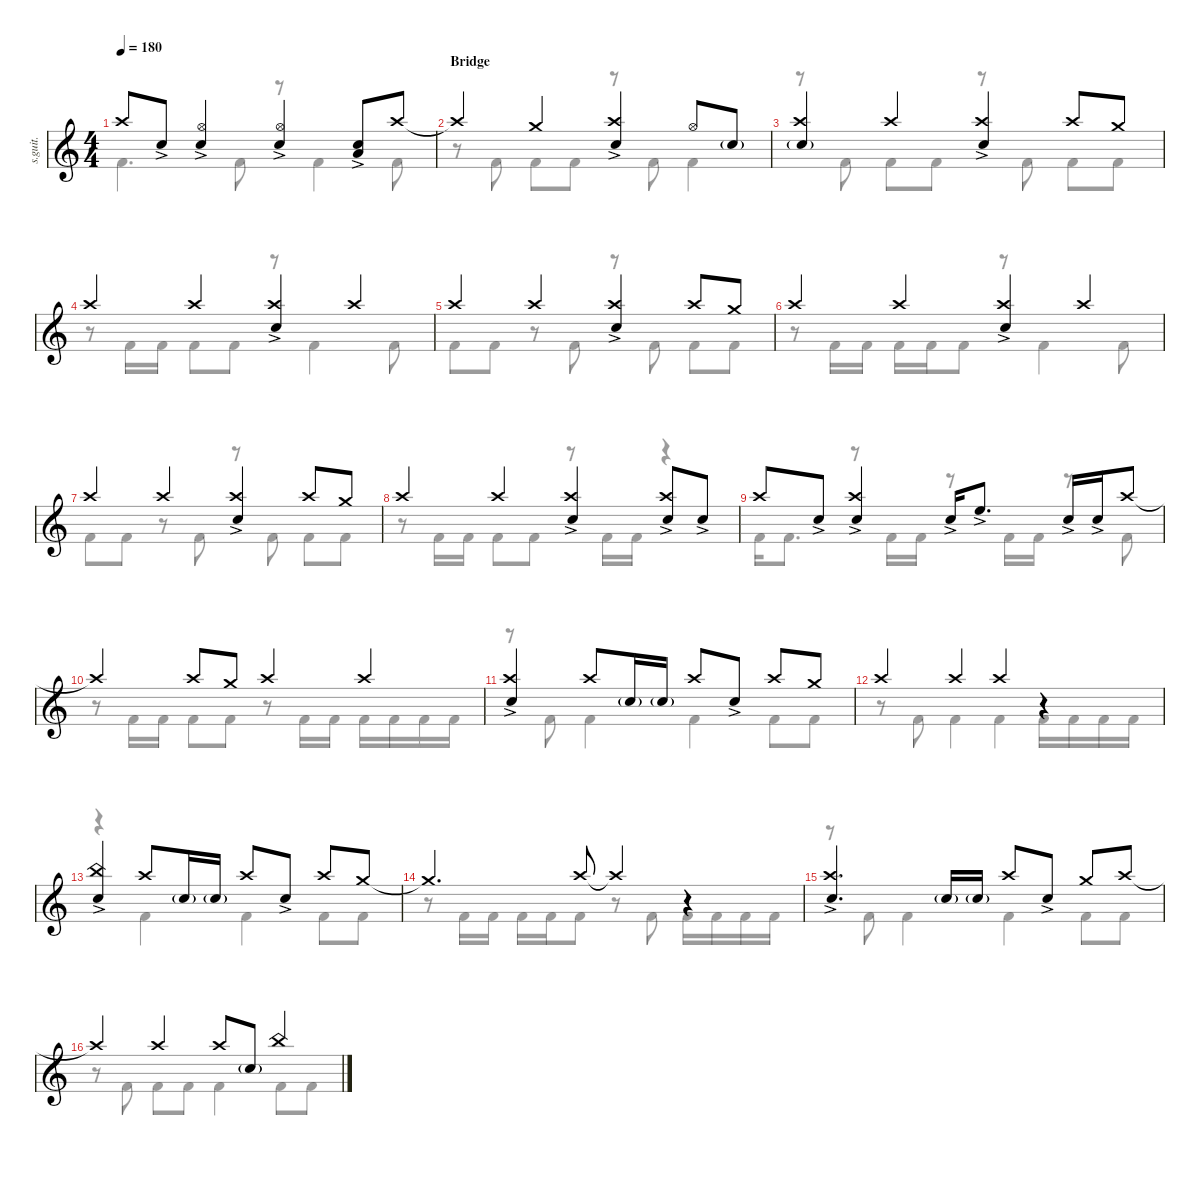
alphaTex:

\defaultSystemsLayout 4
\hideDynamics
\bracketExtendMode nobrackets
\track ("Percussion" "s.guit.") {instrument percussion}
\staff {score}
\articulation defaults
\voice
\ts (4 4)
\tempo 180
\clef g2
\ks c "Crash high (hit)".8{lyrics (0 "") lyrics (1 "") lyrics (2 "") lyrics (3 "") lyrics (4 "") dy f} "Snare (hit) 2"{ac}.8{lyrics (0 "") lyrics (1 "") lyrics (2 "") lyrics (3 "") lyrics (4 "")}
("Snare (hit) 2"{ac} "Hi-Hat (open)").4{lyrics (0 "") lyrics (1 "") lyrics (2 "") lyrics (3 "") lyrics (4 "")} ("Snare (hit) 2"{ac} "Hi-Hat (open)").4{lyrics (0 "") lyrics (1 "") lyrics (2 "") lyrics (3 "") lyrics (4 "")} ("Snare (hit) 2"{ac} "Low Tom (hit)"{ac}).8{lyrics (0 "") lyrics (1 "") lyrics (2 "") lyrics (3 "") lyrics (4 "")} "Crash high (hit)".8{lyrics (0 "") lyrics (1 "") lyrics (2 "") lyrics (3 "") lyrics (4 "")} |
\section ("" "Bridge")
"Crash high (hit)"{t}.4{lyrics (0 "") lyrics (1 "") lyrics (2 "") lyrics (3 "") lyrics (4 "")} "Crash medium (hit)".4{lyrics (0 "") lyrics (1 "") lyrics (2 "") lyrics (3 "") lyrics (4 "")} ("Snare (hit) 2"{ac} "Crash high (hit)").4{lyrics (0 "") lyrics (1 "") lyrics (2 "") lyrics (3 "") lyrics (4 "")} "Hi-Hat (open)".8{lyrics (0 "") lyrics (1 "") lyrics (2 "") lyrics (3 "") lyrics (4 "")} "Snare (hit) 2"{g}.8{lyrics (0 "") lyrics (1 "") lyrics (2 "") lyrics (3 "") lyrics (4 "")} |
("Snare (hit) 2"{g} "Crash high (hit)").4{lyrics (0 "") lyrics (1 "") lyrics (2 "") lyrics (3 "") lyrics (4 "")} "Crash high (hit)".4{lyrics (0 "") lyrics (1 "") lyrics (2 "") lyrics (3 "") lyrics (4 "")} ("Crash high (hit)" "Snare (hit) 2"{ac}).4{lyrics (0 "") lyrics (1 "") lyrics (2 "") lyrics (3 "") lyrics (4 "")} "Crash high (hit)".8{lyrics (0 "") lyrics (1 "") lyrics (2 "") lyrics (3 "") lyrics (4 "")} "Crash medium (hit)".8{lyrics (0 "") lyrics (1 "") lyrics (2 "") lyrics (3 "") lyrics (4 "")} |
"Crash high (hit)".4{lyrics (0 "") lyrics (1 "") lyrics (2 "") lyrics (3 "") lyrics (4 "")} "Crash high (hit)".4{lyrics (0 "") lyrics (1 "") lyrics (2 "") lyrics (3 "") lyrics (4 "")} ("Crash high (hit)" "Snare (hit) 2"{ac}).4{lyrics (0 "") lyrics (1 "") lyrics (2 "") lyrics (3 "") lyrics (4 "")} "Crash high (hit)".4{lyrics (0 "") lyrics (1 "") lyrics (2 "") lyrics (3 "") lyrics (4 "")} |
"Crash high (hit)".4{lyrics (0 "") lyrics (1 "") lyrics (2 "") lyrics (3 "") lyrics (4 "")} "Crash high (hit)".4{lyrics (0 "") lyrics (1 "") lyrics (2 "") lyrics (3 "") lyrics (4 "")} ("Crash high (hit)" "Snare (hit) 2"{ac}).4{lyrics (0 "") lyrics (1 "") lyrics (2 "") lyrics (3 "") lyrics (4 "")} "Crash high (hit)".8{lyrics (0 "") lyrics (1 "") lyrics (2 "") lyrics (3 "") lyrics (4 "")} "Crash medium (hit)".8{lyrics (0 "") lyrics (1 "") lyrics (2 "") lyrics (3 "") lyrics (4 "")} |
"Crash high (hit)".4{lyrics (0 "") lyrics (1 "") lyrics (2 "") lyrics (3 "") lyrics (4 "")} "Crash high (hit)".4{lyrics (0 "") lyrics (1 "") lyrics (2 "") lyrics (3 "") lyrics (4 "")} ("Crash high (hit)" "Snare (hit) 2"{ac}).4{lyrics (0 "") lyrics (1 "") lyrics (2 "") lyrics (3 "") lyrics (4 "")} "Crash high (hit)".4{lyrics (0 "") lyrics (1 "") lyrics (2 "") lyrics (3 "") lyrics (4 "")} |
"Crash high (hit)".4{lyrics (0 "") lyrics (1 "") lyrics (2 "") lyrics (3 "") lyrics (4 "")} "Crash high (hit)".4{lyrics (0 "") lyrics (1 "") lyrics (2 "") lyrics (3 "") lyrics (4 "")} ("Crash high (hit)" "Snare (hit) 2"{ac}).4{lyrics (0 "") lyrics (1 "") lyrics (2 "") lyrics (3 "") lyrics (4 "")} "Crash high (hit)".8{lyrics (0 "") lyrics (1 "") lyrics (2 "") lyrics (3 "") lyrics (4 "")} "Crash medium (hit)".8{lyrics (0 "") lyrics (1 "") lyrics (2 "") lyrics (3 "") lyrics (4 "")} |
"Crash high (hit)".4{lyrics (0 "") lyrics (1 "") lyrics (2 "") lyrics (3 "") lyrics (4 "")} "Crash high (hit)".4{lyrics (0 "") lyrics (1 "") lyrics (2 "") lyrics (3 "") lyrics (4 "")} ("Crash high (hit)" "Snare (hit) 2"{ac}).4{lyrics (0 "") lyrics (1 "") lyrics (2 "") lyrics (3 "") lyrics (4 "")} ("Crash high (hit)" "Snare (hit) 2"{ac}).8{lyrics (0 "") lyrics (1 "") lyrics (2 "") lyrics (3 "") lyrics (4 "")} "Snare (hit) 2"{ac}.8{lyrics (0 "") lyrics (1 "") lyrics (2 "") lyrics (3 "") lyrics (4 "")} |
"Crash high (hit)".8{lyrics (0 "") lyrics (1 "") lyrics (2 "") lyrics (3 "") lyrics (4 "")} "Snare (hit) 2"{ac}.8{lyrics (0 "") lyrics (1 "") lyrics (2 "") lyrics (3 "") lyrics (4 "")} ("Snare (hit) 2"{ac} "Crash high (hit)").4{lyrics (0 "") lyrics (1 "") lyrics (2 "") lyrics (3 "") lyrics (4 "")} "Snare (hit) 2"{ac}.16{lyrics (0 "") lyrics (1 "") lyrics (2 "") lyrics (3 "") lyrics (4 "")} "High Floor Tom (hit)"{ac}.8{d lyrics (0 "") lyrics (1 "") lyrics (2 "") lyrics (3 "") lyrics (4 "")} "Snare (hit) 2"{ac}.16{lyrics (0 "") lyrics (1 "") lyrics (2 "") lyrics (3 "") lyrics (4 "")} "Snare (hit) 2"{ac}.16{lyrics (0 "") lyrics (1 "") lyrics (2 "") lyrics (3 "") lyrics (4 "")} "Crash high (hit)".8{lyrics (0 "") lyrics (1 "") lyrics (2 "") lyrics (3 "") lyrics (4 "")} |
"Crash high (hit)"{t}.4{lyrics (0 "") lyrics (1 "") lyrics (2 "") lyrics (3 "") lyrics (4 "")} "Crash high (hit)".8{lyrics (0 "") lyrics (1 "") lyrics (2 "") lyrics (3 "") lyrics (4 "")} "Crash medium (hit)".8{lyrics (0 "") lyrics (1 "") lyrics (2 "") lyrics (3 "") lyrics (4 "")} "Crash high (hit)".4{lyrics (0 "") lyrics (1 "") lyrics (2 "") lyrics (3 "") lyrics (4 "")} "Crash high (hit)".4{lyrics (0 "") lyrics (1 "") lyrics (2 "") lyrics (3 "") lyrics (4 "")} |
("Crash high (hit)" "Snare (hit) 2"{ac}).4{lyrics (0 "") lyrics (1 "") lyrics (2 "") lyrics (3 "") lyrics (4 "")} "Crash high (hit)".8{lyrics (0 "") lyrics (1 "") lyrics (2 "") lyrics (3 "") lyrics (4 "")} "Snare (hit) 2"{g}.16{lyrics (0 "") lyrics (1 "") lyrics (2 "") lyrics (3 "") lyrics (4 "")} "Snare (hit) 2"{g}.16{lyrics (0 "") lyrics (1 "") lyrics (2 "") lyrics (3 "") lyrics (4 "")} "Crash high (hit)".8{lyrics (0 "") lyrics (1 "") lyrics (2 "") lyrics (3 "") lyrics (4 "")} "Snare (hit) 2"{ac}.8{lyrics (0 "") lyrics (1 "") lyrics (2 "") lyrics (3 "") lyrics (4 "")} "Crash high (hit)".8{lyrics (0 "") lyrics (1 "") lyrics (2 "") lyrics (3 "") lyrics (4 "")} "Crash medium (hit)".8{lyrics (0 "") lyrics (1 "") lyrics (2 "") lyrics (3 "") lyrics (4 "")} |
"Crash high (hit)".4{lyrics (0 "") lyrics (1 "") lyrics (2 "") lyrics (3 "") lyrics (4 "")} "Crash high (hit)".4{lyrics (0 "") lyrics (1 "") lyrics (2 "") lyrics (3 "") lyrics (4 "")} "Crash high (hit)".4{lyrics (0 "") lyrics (1 "") lyrics (2 "") lyrics (3 "") lyrics (4 "")} r.4 |
("Snare (hit) 2"{ac} "China (hit)").4{lyrics (0 "") lyrics (1 "") lyrics (2 "") lyrics (3 "") lyrics (4 "")} "Crash high (hit)".8{lyrics (0 "") lyrics (1 "") lyrics (2 "") lyrics (3 "") lyrics (4 "")} "Snare (hit) 2"{g}.16{lyrics (0 "") lyrics (1 "") lyrics (2 "") lyrics (3 "") lyrics (4 "")} "Snare (hit) 2"{g}.16{lyrics (0 "") lyrics (1 "") lyrics (2 "") lyrics (3 "") lyrics (4 "")} "Crash high (hit)".8{lyrics (0 "") lyrics (1 "") lyrics (2 "") lyrics (3 "") lyrics (4 "")} "Snare (hit) 2"{ac}.8{lyrics (0 "") lyrics (1 "") lyrics (2 "") lyrics (3 "") lyrics (4 "")} "Crash high (hit)".8{lyrics (0 "") lyrics (1 "") lyrics (2 "") lyrics (3 "") lyrics (4 "")} "Crash medium (hit)".8{lyrics (0 "") lyrics (1 "") lyrics (2 "") lyrics (3 "") lyrics (4 "")} |
"Crash medium (hit)"{t}.4{d lyrics (0 "") lyrics (1 "") lyrics (2 "") lyrics (3 "") lyrics (4 "")} "Crash high (hit)".8{lyrics (0 "") lyrics (1 "") lyrics (2 "") lyrics (3 "") lyrics (4 "")} "Crash high (hit)"{t}.4{lyrics (0 "") lyrics (1 "") lyrics (2 "") lyrics (3 "") lyrics (4 "")} r.4 |
("Snare (hit) 2"{ac} "Crash high (hit)").4{d lyrics (0 "") lyrics (1 "") lyrics (2 "") lyrics (3 "") lyrics (4 "")} "Snare (hit) 2"{g}.16{lyrics (0 "") lyrics (1 "") lyrics (2 "") lyrics (3 "") lyrics (4 "")} "Snare (hit) 2"{g}.16{lyrics (0 "") lyrics (1 "") lyrics (2 "") lyrics (3 "") lyrics (4 "")} "Crash high (hit)".8{lyrics (0 "") lyrics (1 "") lyrics (2 "") lyrics (3 "") lyrics (4 "")} "Snare (hit) 2"{ac}.8{lyrics (0 "") lyrics (1 "") lyrics (2 "") lyrics (3 "") lyrics (4 "")} "Crash medium (hit)".8{lyrics (0 "") lyrics (1 "") lyrics (2 "") lyrics (3 "") lyrics (4 "")} "Crash high (hit)".8{lyrics (0 "") lyrics (1 "") lyrics (2 "") lyrics (3 "") lyrics (4 "")} |
"Crash high (hit)"{t}.4{lyrics (0 "") lyrics (1 "") lyrics (2 "") lyrics (3 "") lyrics (4 "")} "Crash high (hit)".4{lyrics (0 "") lyrics (1 "") lyrics (2 "") lyrics (3 "") lyrics (4 "")} "Crash high (hit)".8{lyrics (0 "") lyrics (1 "") lyrics (2 "") lyrics (3 "") lyrics (4 "")} "Snare (hit) 2"{g}.8{lyrics (0 "") lyrics (1 "") lyrics (2 "") lyrics (3 "") lyrics (4 "")} "China (hit)".4{lyrics (0 "") lyrics (1 "") lyrics (2 "") lyrics (3 "") lyrics (4 "")}
\voice
\clef g2
\ottava regular
\simile none
\ks c "Kick (hit) 2".4{d lyrics (0 "") lyrics (1 "") lyrics (2 "") lyrics (3 "") lyrics (4 "") dy f} "Kick (hit) 2".8{lyrics (0 "") lyrics (1 "") lyrics (2 "") lyrics (3 "") lyrics (4 "")}
r.8 "Kick (hit) 2".4{lyrics (0 "") lyrics (1 "") lyrics (2 "") lyrics (3 "") lyrics (4 "")} "Kick (hit) 2".8{lyrics (0 "") lyrics (1 "") lyrics (2 "") lyrics (3 "") lyrics (4 "")} |
r.8 "Kick (hit) 2".8{lyrics (0 "") lyrics (1 "") lyrics (2 "") lyrics (3 "") lyrics (4 "")} "Kick (hit) 2".8{lyrics (0 "") lyrics (1 "") lyrics (2 "") lyrics (3 "") lyrics (4 "")} "Kick (hit) 2".8{lyrics (0 "") lyrics (1 "") lyrics (2 "") lyrics (3 "") lyrics (4 "")} r.8 "Kick (hit) 2".8{lyrics (0 "") lyrics (1 "") lyrics (2 "") lyrics (3 "") lyrics (4 "")} "Kick (hit) 2".4{lyrics (0 "") lyrics (1 "") lyrics (2 "") lyrics (3 "") lyrics (4 "")} |
r.8 "Kick (hit) 2".8{lyrics (0 "") lyrics (1 "") lyrics (2 "") lyrics (3 "") lyrics (4 "")} "Kick (hit) 2".8{lyrics (0 "") lyrics (1 "") lyrics (2 "") lyrics (3 "") lyrics (4 "")} "Kick (hit) 2".8{lyrics (0 "") lyrics (1 "") lyrics (2 "") lyrics (3 "") lyrics (4 "")} r.8 "Kick (hit) 2".8{lyrics (0 "") lyrics (1 "") lyrics (2 "") lyrics (3 "") lyrics (4 "")} "Kick (hit) 2".8{lyrics (0 "") lyrics (1 "") lyrics (2 "") lyrics (3 "") lyrics (4 "")} "Kick (hit) 2".8{lyrics (0 "") lyrics (1 "") lyrics (2 "") lyrics (3 "") lyrics (4 "")} |
r.8 "Kick (hit) 2".16{lyrics (0 "") lyrics (1 "") lyrics (2 "") lyrics (3 "") lyrics (4 "")} "Kick (hit) 2".16{lyrics (0 "") lyrics (1 "") lyrics (2 "") lyrics (3 "") lyrics (4 "")} "Kick (hit) 2".8{lyrics (0 "") lyrics (1 "") lyrics (2 "") lyrics (3 "") lyrics (4 "")} "Kick (hit) 2".8{lyrics (0 "") lyrics (1 "") lyrics (2 "") lyrics (3 "") lyrics (4 "")} r.8 "Kick (hit) 2".4{lyrics (0 "") lyrics (1 "") lyrics (2 "") lyrics (3 "") lyrics (4 "")} "Kick (hit) 2".8{lyrics (0 "") lyrics (1 "") lyrics (2 "") lyrics (3 "") lyrics (4 "")} |
"Kick (hit) 2".8{lyrics (0 "") lyrics (1 "") lyrics (2 "") lyrics (3 "") lyrics (4 "")} "Kick (hit) 2".8{lyrics (0 "") lyrics (1 "") lyrics (2 "") lyrics (3 "") lyrics (4 "")} r.8 "Kick (hit) 2".8{lyrics (0 "") lyrics (1 "") lyrics (2 "") lyrics (3 "") lyrics (4 "")} r.8 "Kick (hit) 2".8{lyrics (0 "") lyrics (1 "") lyrics (2 "") lyrics (3 "") lyrics (4 "")} "Kick (hit) 2".8{lyrics (0 "") lyrics (1 "") lyrics (2 "") lyrics (3 "") lyrics (4 "")} "Kick (hit) 2".8{lyrics (0 "") lyrics (1 "") lyrics (2 "") lyrics (3 "") lyrics (4 "")} |
r.8 "Kick (hit) 2".16{lyrics (0 "") lyrics (1 "") lyrics (2 "") lyrics (3 "") lyrics (4 "")} "Kick (hit) 2".16{lyrics (0 "") lyrics (1 "") lyrics (2 "") lyrics (3 "") lyrics (4 "")} "Kick (hit) 2".16{lyrics (0 "") lyrics (1 "") lyrics (2 "") lyrics (3 "") lyrics (4 "")} "Kick (hit) 2".16{lyrics (0 "") lyrics (1 "") lyrics (2 "") lyrics (3 "") lyrics (4 "")} "Kick (hit) 2".8{lyrics (0 "") lyrics (1 "") lyrics (2 "") lyrics (3 "") lyrics (4 "")} r.8 "Kick (hit) 2".4{lyrics (0 "") lyrics (1 "") lyrics (2 "") lyrics (3 "") lyrics (4 "")} "Kick (hit) 2".8{lyrics (0 "") lyrics (1 "") lyrics (2 "") lyrics (3 "") lyrics (4 "")} |
"Kick (hit) 2".8{lyrics (0 "") lyrics (1 "") lyrics (2 "") lyrics (3 "") lyrics (4 "")} "Kick (hit) 2".8{lyrics (0 "") lyrics (1 "") lyrics (2 "") lyrics (3 "") lyrics (4 "")} r.8 "Kick (hit) 2".8{lyrics (0 "") lyrics (1 "") lyrics (2 "") lyrics (3 "") lyrics (4 "")} r.8 "Kick (hit) 2".8{lyrics (0 "") lyrics (1 "") lyrics (2 "") lyrics (3 "") lyrics (4 "")} "Kick (hit) 2".8{lyrics (0 "") lyrics (1 "") lyrics (2 "") lyrics (3 "") lyrics (4 "")} "Kick (hit) 2".8{lyrics (0 "") lyrics (1 "") lyrics (2 "") lyrics (3 "") lyrics (4 "")} |
r.8 "Kick (hit) 2".16{lyrics (0 "") lyrics (1 "") lyrics (2 "") lyrics (3 "") lyrics (4 "")} "Kick (hit) 2".16{lyrics (0 "") lyrics (1 "") lyrics (2 "") lyrics (3 "") lyrics (4 "")} "Kick (hit) 2".8{lyrics (0 "") lyrics (1 "") lyrics (2 "") lyrics (3 "") lyrics (4 "")} "Kick (hit) 2".8{lyrics (0 "") lyrics (1 "") lyrics (2 "") lyrics (3 "") lyrics (4 "")} r.8 "Kick (hit) 2".16{lyrics (0 "") lyrics (1 "") lyrics (2 "") lyrics (3 "") lyrics (4 "")} "Kick (hit) 2".16{lyrics (0 "") lyrics (1 "") lyrics (2 "") lyrics (3 "") lyrics (4 "")} r.4 |
"Kick (hit) 2".16{lyrics (0 "") lyrics (1 "") lyrics (2 "") lyrics (3 "") lyrics (4 "")} "Kick (hit) 2".8{d lyrics (0 "") lyrics (1 "") lyrics (2 "") lyrics (3 "") lyrics (4 "")} r.8 "Kick (hit) 2".16{lyrics (0 "") lyrics (1 "") lyrics (2 "") lyrics (3 "") lyrics (4 "")} "Kick (hit) 2".16{lyrics (0 "") lyrics (1 "") lyrics (2 "") lyrics (3 "") lyrics (4 "")} r.8 "Kick (hit) 2".16{lyrics (0 "") lyrics (1 "") lyrics (2 "") lyrics (3 "") lyrics (4 "")} "Kick (hit) 2".16{lyrics (0 "") lyrics (1 "") lyrics (2 "") lyrics (3 "") lyrics (4 "")} r.8 "Kick (hit) 2".8{lyrics (0 "") lyrics (1 "") lyrics (2 "") lyrics (3 "") lyrics (4 "")} |
r.8 "Kick (hit) 2".16{lyrics (0 "") lyrics (1 "") lyrics (2 "") lyrics (3 "") lyrics (4 "")} "Kick (hit) 2".16{lyrics (0 "") lyrics (1 "") lyrics (2 "") lyrics (3 "") lyrics (4 "")} "Kick (hit) 2".8{lyrics (0 "") lyrics (1 "") lyrics (2 "") lyrics (3 "") lyrics (4 "")} "Kick (hit) 2".8{lyrics (0 "") lyrics (1 "") lyrics (2 "") lyrics (3 "") lyrics (4 "")} r.8 "Kick (hit) 2".16{lyrics (0 "") lyrics (1 "") lyrics (2 "") lyrics (3 "") lyrics (4 "")} "Kick (hit) 2".16{lyrics (0 "") lyrics (1 "") lyrics (2 "") lyrics (3 "") lyrics (4 "")} "Kick (hit) 2".16{lyrics (0 "") lyrics (1 "") lyrics (2 "") lyrics (3 "") lyrics (4 "")} "Kick (hit) 2".16{lyrics (0 "") lyrics (1 "") lyrics (2 "") lyrics (3 "") lyrics (4 "")} "Kick (hit) 2".16{lyrics (0 "") lyrics (1 "") lyrics (2 "") lyrics (3 "") lyrics (4 "")} "Kick (hit) 2".16{lyrics (0 "") lyrics (1 "") lyrics (2 "") lyrics (3 "") lyrics (4 "")} |
r.8 "Kick (hit) 2".8{lyrics (0 "") lyrics (1 "") lyrics (2 "") lyrics (3 "") lyrics (4 "")} "Kick (hit) 2".4{lyrics (0 "") lyrics (1 "") lyrics (2 "") lyrics (3 "") lyrics (4 "")} "Kick (hit) 2".4{lyrics (0 "") lyrics (1 "") lyrics (2 "") lyrics (3 "") lyrics (4 "")} "Kick (hit) 2".8{lyrics (0 "") lyrics (1 "") lyrics (2 "") lyrics (3 "") lyrics (4 "")} "Kick (hit) 2".8{lyrics (0 "") lyrics (1 "") lyrics (2 "") lyrics (3 "") lyrics (4 "")} |
r.8 "Kick (hit) 2".8{lyrics (0 "") lyrics (1 "") lyrics (2 "") lyrics (3 "") lyrics (4 "")} "Kick (hit) 2".4{lyrics (0 "") lyrics (1 "") lyrics (2 "") lyrics (3 "") lyrics (4 "")} "Kick (hit) 2".4{lyrics (0 "") lyrics (1 "") lyrics (2 "") lyrics (3 "") lyrics (4 "")} "Kick (hit) 2".16{lyrics (0 "") lyrics (1 "") lyrics (2 "") lyrics (3 "") lyrics (4 "")} "Kick (hit) 2".16{lyrics (0 "") lyrics (1 "") lyrics (2 "") lyrics (3 "") lyrics (4 "")} "Kick (hit) 2".16{lyrics (0 "") lyrics (1 "") lyrics (2 "") lyrics (3 "") lyrics (4 "")} "Kick (hit) 2".16{lyrics (0 "") lyrics (1 "") lyrics (2 "") lyrics (3 "") lyrics (4 "")} |
r.4 "Kick (hit) 2".4{lyrics (0 "") lyrics (1 "") lyrics (2 "") lyrics (3 "") lyrics (4 "")} "Kick (hit) 2".4{lyrics (0 "") lyrics (1 "") lyrics (2 "") lyrics (3 "") lyrics (4 "")} "Kick (hit) 2".8{lyrics (0 "") lyrics (1 "") lyrics (2 "") lyrics (3 "") lyrics (4 "")} "Kick (hit) 2".8{lyrics (0 "") lyrics (1 "") lyrics (2 "") lyrics (3 "") lyrics (4 "")} |
r.8 "Kick (hit) 2".16{lyrics (0 "") lyrics (1 "") lyrics (2 "") lyrics (3 "") lyrics (4 "")} "Kick (hit) 2".16{lyrics (0 "") lyrics (1 "") lyrics (2 "") lyrics (3 "") lyrics (4 "")} "Kick (hit) 2".16{lyrics (0 "") lyrics (1 "") lyrics (2 "") lyrics (3 "") lyrics (4 "")} "Kick (hit) 2".16{lyrics (0 "") lyrics (1 "") lyrics (2 "") lyrics (3 "") lyrics (4 "")} "Kick (hit) 2".8{lyrics (0 "") lyrics (1 "") lyrics (2 "") lyrics (3 "") lyrics (4 "")} r.8 "Kick (hit) 2".8{lyrics (0 "") lyrics (1 "") lyrics (2 "") lyrics (3 "") lyrics (4 "")} "Kick (hit) 2".16{lyrics (0 "") lyrics (1 "") lyrics (2 "") lyrics (3 "") lyrics (4 "")} "Kick (hit) 2".16{lyrics (0 "") lyrics (1 "") lyrics (2 "") lyrics (3 "") lyrics (4 "")} "Kick (hit) 2".16{lyrics (0 "") lyrics (1 "") lyrics (2 "") lyrics (3 "") lyrics (4 "")} "Kick (hit) 2".16{lyrics (0 "") lyrics (1 "") lyrics (2 "") lyrics (3 "") lyrics (4 "")} |
r.8 "Kick (hit) 2".8{lyrics (0 "") lyrics (1 "") lyrics (2 "") lyrics (3 "") lyrics (4 "")} "Kick (hit) 2".4{lyrics (0 "") lyrics (1 "") lyrics (2 "") lyrics (3 "") lyrics (4 "")} "Kick (hit) 2".4{lyrics (0 "") lyrics (1 "") lyrics (2 "") lyrics (3 "") lyrics (4 "")} "Kick (hit) 2".8{lyrics (0 "") lyrics (1 "") lyrics (2 "") lyrics (3 "") lyrics (4 "")} "Kick (hit) 2".8{lyrics (0 "") lyrics (1 "") lyrics (2 "") lyrics (3 "") lyrics (4 "")} |
r.8 "Kick (hit) 2".8{lyrics (0 "") lyrics (1 "") lyrics (2 "") lyrics (3 "") lyrics (4 "")} "Kick (hit) 2".8{lyrics (0 "") lyrics (1 "") lyrics (2 "") lyrics (3 "") lyrics (4 "")} "Kick (hit) 2".8{lyrics (0 "") lyrics (1 "") lyrics (2 "") lyrics (3 "") lyrics (4 "")} "Kick (hit) 2".4{lyrics (0 "") lyrics (1 "") lyrics (2 "") lyrics (3 "") lyrics (4 "")} "Kick (hit) 2".8{lyrics (0 "") lyrics (1 "") lyrics (2 "") lyrics (3 "") lyrics (4 "")} "Kick (hit) 2".8{lyrics (0 "") lyrics (1 "") lyrics (2 "") lyrics (3 "") lyrics (4 "")}
